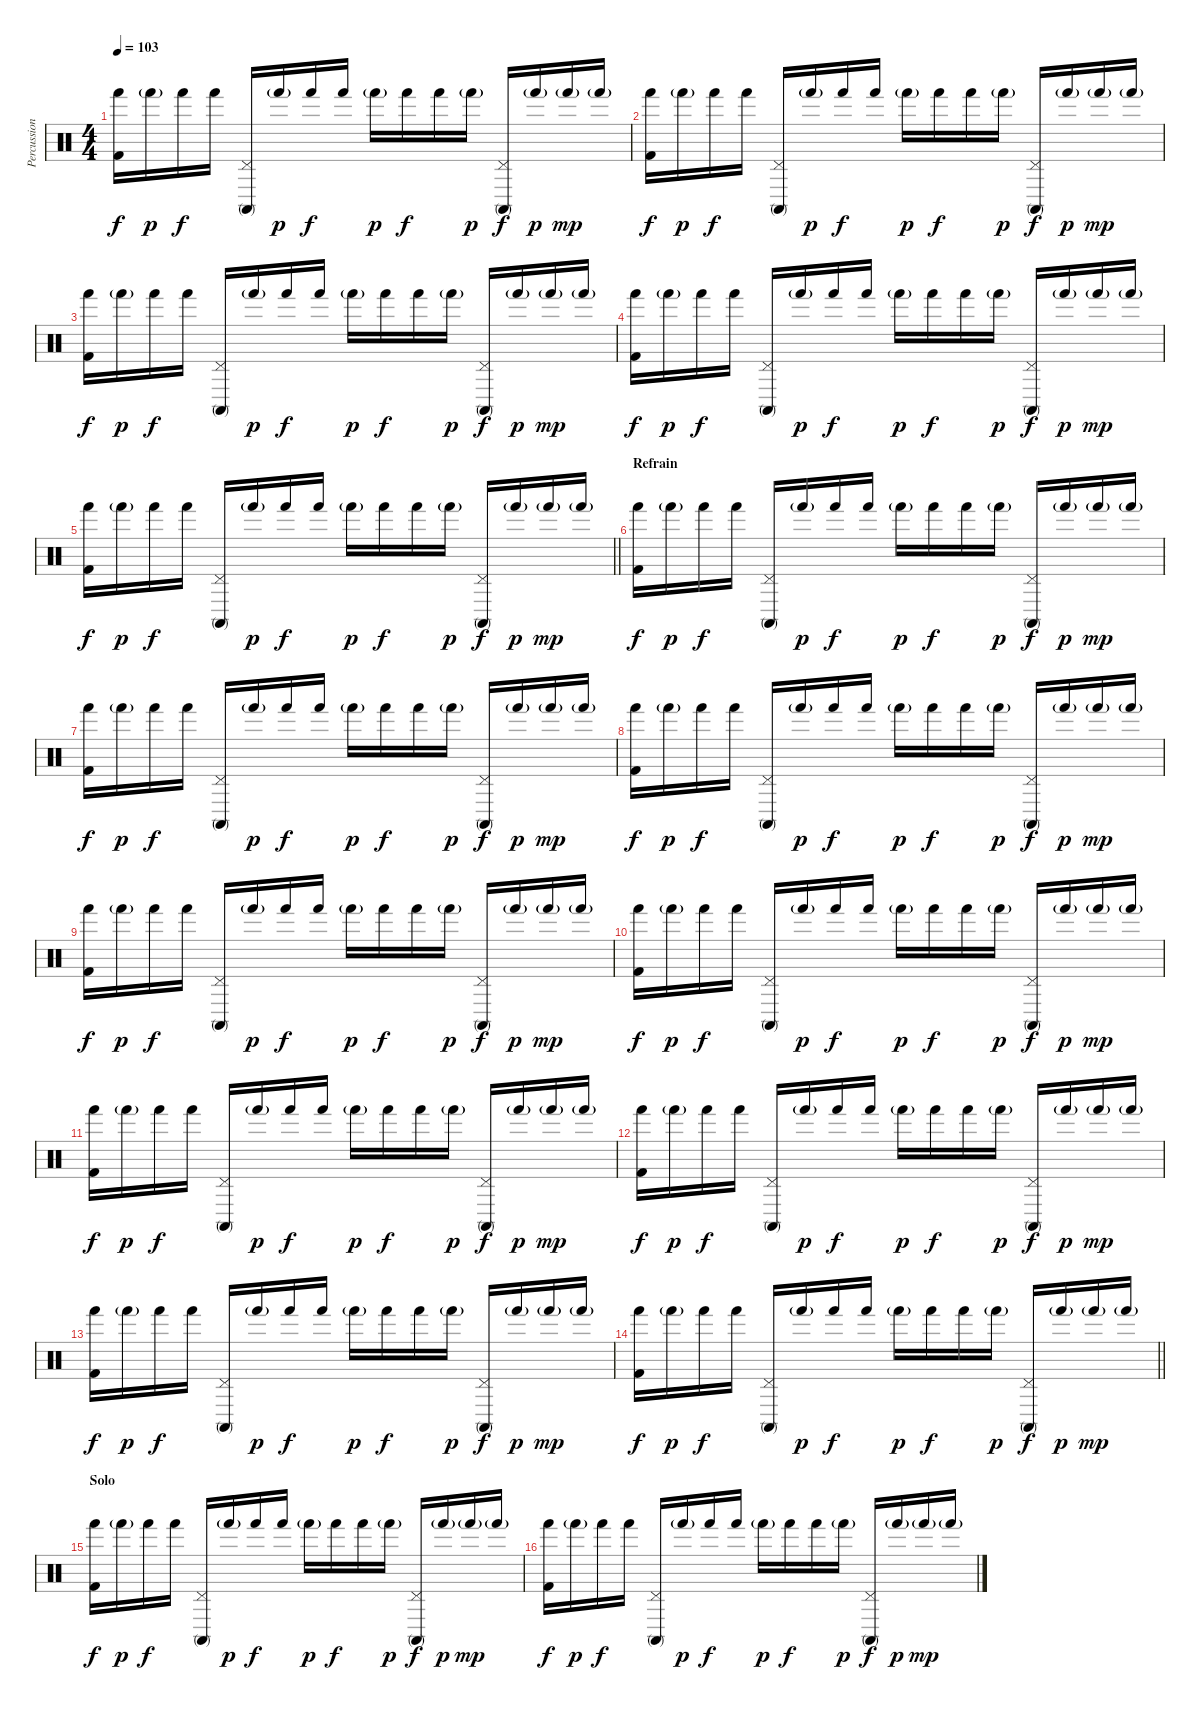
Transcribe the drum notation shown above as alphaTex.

\track ("Percussions" "Percussion") {instrument percussion}
\staff {score}
\articulation defaults
\ts (4 4)
\tempo 103
\clef neutral
\ks c
("Hand (hit)" "Kick (hit) 2").16{dy f} "Hand (hit)"{g}.16{dy p} "Hand (hit)".16{dy f} "Hand (hit)".16 ("Pedal Hi-Hat (hit)" "Conga high (mute)").16 "Hand (hit)"{g}.16{dy p} "Hand (hit)".16{dy f} "Hand (hit)".16 "Hand (hit)"{g}.16{dy p} "Hand (hit)".16{dy f} "Hand (hit)".16 "Hand (hit)"{g}.16{dy p} ("Pedal Hi-Hat (hit)" "Conga high (mute)").16{dy f} "Hand (hit)"{g}.16{dy p} "Hand (hit)"{g}.16{dy mp} "Hand (hit)"{g}.16 |
("Hand (hit)" "Kick (hit) 2").16{dy f} "Hand (hit)"{g}.16{dy p} "Hand (hit)".16{dy f} "Hand (hit)".16 ("Pedal Hi-Hat (hit)" "Conga high (mute)").16 "Hand (hit)"{g}.16{dy p} "Hand (hit)".16{dy f} "Hand (hit)".16 "Hand (hit)"{g}.16{dy p} "Hand (hit)".16{dy f} "Hand (hit)".16 "Hand (hit)"{g}.16{dy p} ("Pedal Hi-Hat (hit)" "Conga high (mute)").16{dy f} "Hand (hit)"{g}.16{dy p} "Hand (hit)"{g}.16{dy mp} "Hand (hit)"{g}.16 |
("Hand (hit)" "Kick (hit) 2").16{dy f} "Hand (hit)"{g}.16{dy p} "Hand (hit)".16{dy f} "Hand (hit)".16 ("Pedal Hi-Hat (hit)" "Conga high (mute)").16 "Hand (hit)"{g}.16{dy p} "Hand (hit)".16{dy f} "Hand (hit)".16 "Hand (hit)"{g}.16{dy p} "Hand (hit)".16{dy f} "Hand (hit)".16 "Hand (hit)"{g}.16{dy p} ("Pedal Hi-Hat (hit)" "Conga high (mute)").16{dy f} "Hand (hit)"{g}.16{dy p} "Hand (hit)"{g}.16{dy mp} "Hand (hit)"{g}.16 |
("Hand (hit)" "Kick (hit) 2").16{dy f} "Hand (hit)"{g}.16{dy p} "Hand (hit)".16{dy f} "Hand (hit)".16 ("Pedal Hi-Hat (hit)" "Conga high (mute)").16 "Hand (hit)"{g}.16{dy p} "Hand (hit)".16{dy f} "Hand (hit)".16 "Hand (hit)"{g}.16{dy p} "Hand (hit)".16{dy f} "Hand (hit)".16 "Hand (hit)"{g}.16{dy p} ("Pedal Hi-Hat (hit)" "Conga high (mute)").16{dy f} "Hand (hit)"{g}.16{dy p} "Hand (hit)"{g}.16{dy mp} "Hand (hit)"{g}.16 |
\barLineRight lightlight
("Hand (hit)" "Kick (hit) 2").16{dy f} "Hand (hit)"{g}.16{dy p} "Hand (hit)".16{dy f} "Hand (hit)".16 ("Pedal Hi-Hat (hit)" "Conga high (mute)").16 "Hand (hit)"{g}.16{dy p} "Hand (hit)".16{dy f} "Hand (hit)".16 "Hand (hit)"{g}.16{dy p} "Hand (hit)".16{dy f} "Hand (hit)".16 "Hand (hit)"{g}.16{dy p} ("Pedal Hi-Hat (hit)" "Conga high (mute)").16{dy f} "Hand (hit)"{g}.16{dy p} "Hand (hit)"{g}.16{dy mp} "Hand (hit)"{g}.16 |
\section ("" "Refrain")
("Hand (hit)" "Kick (hit) 2").16{dy f} "Hand (hit)"{g}.16{dy p} "Hand (hit)".16{dy f} "Hand (hit)".16 ("Pedal Hi-Hat (hit)" "Conga high (mute)").16 "Hand (hit)"{g}.16{dy p} "Hand (hit)".16{dy f} "Hand (hit)".16 "Hand (hit)"{g}.16{dy p} "Hand (hit)".16{dy f} "Hand (hit)".16 "Hand (hit)"{g}.16{dy p} ("Pedal Hi-Hat (hit)" "Conga high (mute)").16{dy f} "Hand (hit)"{g}.16{dy p} "Hand (hit)"{g}.16{dy mp} "Hand (hit)"{g}.16 |
("Hand (hit)" "Kick (hit) 2").16{dy f} "Hand (hit)"{g}.16{dy p} "Hand (hit)".16{dy f} "Hand (hit)".16 ("Pedal Hi-Hat (hit)" "Conga high (mute)").16 "Hand (hit)"{g}.16{dy p} "Hand (hit)".16{dy f} "Hand (hit)".16 "Hand (hit)"{g}.16{dy p} "Hand (hit)".16{dy f} "Hand (hit)".16 "Hand (hit)"{g}.16{dy p} ("Pedal Hi-Hat (hit)" "Conga high (mute)").16{dy f} "Hand (hit)"{g}.16{dy p} "Hand (hit)"{g}.16{dy mp} "Hand (hit)"{g}.16 |
("Hand (hit)" "Kick (hit) 2").16{dy f} "Hand (hit)"{g}.16{dy p} "Hand (hit)".16{dy f} "Hand (hit)".16 ("Pedal Hi-Hat (hit)" "Conga high (mute)").16 "Hand (hit)"{g}.16{dy p} "Hand (hit)".16{dy f} "Hand (hit)".16 "Hand (hit)"{g}.16{dy p} "Hand (hit)".16{dy f} "Hand (hit)".16 "Hand (hit)"{g}.16{dy p} ("Pedal Hi-Hat (hit)" "Conga high (mute)").16{dy f} "Hand (hit)"{g}.16{dy p} "Hand (hit)"{g}.16{dy mp} "Hand (hit)"{g}.16 |
("Hand (hit)" "Kick (hit) 2").16{dy f} "Hand (hit)"{g}.16{dy p} "Hand (hit)".16{dy f} "Hand (hit)".16 ("Pedal Hi-Hat (hit)" "Conga high (mute)").16 "Hand (hit)"{g}.16{dy p} "Hand (hit)".16{dy f} "Hand (hit)".16 "Hand (hit)"{g}.16{dy p} "Hand (hit)".16{dy f} "Hand (hit)".16 "Hand (hit)"{g}.16{dy p} ("Pedal Hi-Hat (hit)" "Conga high (mute)").16{dy f} "Hand (hit)"{g}.16{dy p} "Hand (hit)"{g}.16{dy mp} "Hand (hit)"{g}.16 |
("Hand (hit)" "Kick (hit) 2").16{dy f} "Hand (hit)"{g}.16{dy p} "Hand (hit)".16{dy f} "Hand (hit)".16 ("Pedal Hi-Hat (hit)" "Conga high (mute)").16 "Hand (hit)"{g}.16{dy p} "Hand (hit)".16{dy f} "Hand (hit)".16 "Hand (hit)"{g}.16{dy p} "Hand (hit)".16{dy f} "Hand (hit)".16 "Hand (hit)"{g}.16{dy p} ("Pedal Hi-Hat (hit)" "Conga high (mute)").16{dy f} "Hand (hit)"{g}.16{dy p} "Hand (hit)"{g}.16{dy mp} "Hand (hit)"{g}.16 |
("Hand (hit)" "Kick (hit) 2").16{dy f} "Hand (hit)"{g}.16{dy p} "Hand (hit)".16{dy f} "Hand (hit)".16 ("Pedal Hi-Hat (hit)" "Conga high (mute)").16 "Hand (hit)"{g}.16{dy p} "Hand (hit)".16{dy f} "Hand (hit)".16 "Hand (hit)"{g}.16{dy p} "Hand (hit)".16{dy f} "Hand (hit)".16 "Hand (hit)"{g}.16{dy p} ("Pedal Hi-Hat (hit)" "Conga high (mute)").16{dy f} "Hand (hit)"{g}.16{dy p} "Hand (hit)"{g}.16{dy mp} "Hand (hit)"{g}.16 |
("Hand (hit)" "Kick (hit) 2").16{dy f} "Hand (hit)"{g}.16{dy p} "Hand (hit)".16{dy f} "Hand (hit)".16 ("Pedal Hi-Hat (hit)" "Conga high (mute)").16 "Hand (hit)"{g}.16{dy p} "Hand (hit)".16{dy f} "Hand (hit)".16 "Hand (hit)"{g}.16{dy p} "Hand (hit)".16{dy f} "Hand (hit)".16 "Hand (hit)"{g}.16{dy p} ("Pedal Hi-Hat (hit)" "Conga high (mute)").16{dy f} "Hand (hit)"{g}.16{dy p} "Hand (hit)"{g}.16{dy mp} "Hand (hit)"{g}.16 |
("Hand (hit)" "Kick (hit) 2").16{dy f} "Hand (hit)"{g}.16{dy p} "Hand (hit)".16{dy f} "Hand (hit)".16 ("Pedal Hi-Hat (hit)" "Conga high (mute)").16 "Hand (hit)"{g}.16{dy p} "Hand (hit)".16{dy f} "Hand (hit)".16 "Hand (hit)"{g}.16{dy p} "Hand (hit)".16{dy f} "Hand (hit)".16 "Hand (hit)"{g}.16{dy p} ("Pedal Hi-Hat (hit)" "Conga high (mute)").16{dy f} "Hand (hit)"{g}.16{dy p} "Hand (hit)"{g}.16{dy mp} "Hand (hit)"{g}.16 |
\barLineRight lightlight
("Hand (hit)" "Kick (hit) 2").16{dy f} "Hand (hit)"{g}.16{dy p} "Hand (hit)".16{dy f} "Hand (hit)".16 ("Pedal Hi-Hat (hit)" "Conga high (mute)").16 "Hand (hit)"{g}.16{dy p} "Hand (hit)".16{dy f} "Hand (hit)".16 "Hand (hit)"{g}.16{dy p} "Hand (hit)".16{dy f} "Hand (hit)".16 "Hand (hit)"{g}.16{dy p} ("Pedal Hi-Hat (hit)" "Conga high (mute)").16{dy f} "Hand (hit)"{g}.16{dy p} "Hand (hit)"{g}.16{dy mp} "Hand (hit)"{g}.16 |
\section ("" "Solo")
("Hand (hit)" "Kick (hit) 2").16{dy f} "Hand (hit)"{g}.16{dy p} "Hand (hit)".16{dy f} "Hand (hit)".16 ("Pedal Hi-Hat (hit)" "Conga high (mute)").16 "Hand (hit)"{g}.16{dy p} "Hand (hit)".16{dy f} "Hand (hit)".16 "Hand (hit)"{g}.16{dy p} "Hand (hit)".16{dy f} "Hand (hit)".16 "Hand (hit)"{g}.16{dy p} ("Pedal Hi-Hat (hit)" "Conga high (mute)").16{dy f} "Hand (hit)"{g}.16{dy p} "Hand (hit)"{g}.16{dy mp} "Hand (hit)"{g}.16 |
("Hand (hit)" "Kick (hit) 2").16{dy f} "Hand (hit)"{g}.16{dy p} "Hand (hit)".16{dy f} "Hand (hit)".16 ("Pedal Hi-Hat (hit)" "Conga high (mute)").16 "Hand (hit)"{g}.16{dy p} "Hand (hit)".16{dy f} "Hand (hit)".16 "Hand (hit)"{g}.16{dy p} "Hand (hit)".16{dy f} "Hand (hit)".16 "Hand (hit)"{g}.16{dy p} ("Pedal Hi-Hat (hit)" "Conga high (mute)").16{dy f} "Hand (hit)"{g}.16{dy p} "Hand (hit)"{g}.16{dy mp} "Hand (hit)"{g}.16
